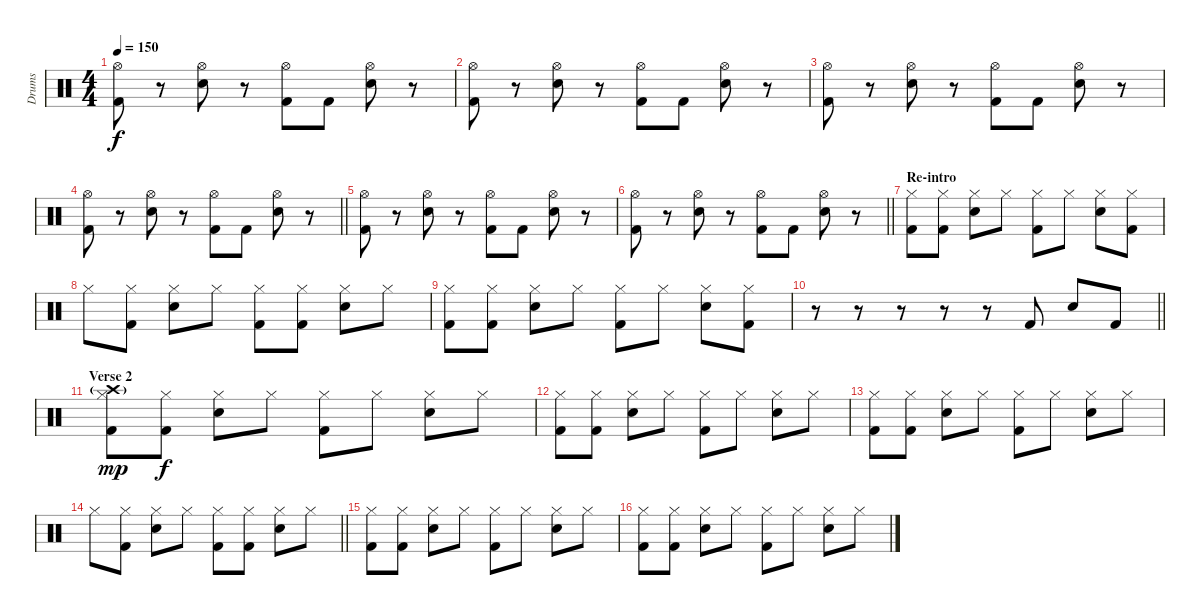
\track ("Drums" "Drums") {instrument percussion}
\staff {score}
\articulation defaults
\ts (4 4)
\tempo 150
\clef neutral
\ks c
("Hi-Hat (open)" "Kick (hit) 2").8{dy f} r.8 ("Hi-Hat (open)" "Snare (hit) 2").8 r.8 ("Hi-Hat (open)" "Kick (hit) 2").8 "Kick (hit) 2".8 ("Hi-Hat (open)" "Snare (hit) 2").8 r.8 |
("Hi-Hat (open)" "Kick (hit) 2").8 r.8 ("Hi-Hat (open)" "Snare (hit) 2").8 r.8 ("Hi-Hat (open)" "Kick (hit) 2").8 "Kick (hit) 2".8 ("Hi-Hat (open)" "Snare (hit) 2").8 r.8 |
("Hi-Hat (open)" "Kick (hit) 2").8 r.8 ("Hi-Hat (open)" "Snare (hit) 2").8 r.8 ("Hi-Hat (open)" "Kick (hit) 2").8 "Kick (hit) 2".8 ("Hi-Hat (open)" "Snare (hit) 2").8 r.8 |
\barLineRight lightlight
("Hi-Hat (open)" "Kick (hit) 2").8 r.8 ("Hi-Hat (open)" "Snare (hit) 2").8 r.8 ("Hi-Hat (open)" "Kick (hit) 2").8 "Kick (hit) 2".8 ("Hi-Hat (open)" "Snare (hit) 2").8 r.8 |
("Hi-Hat (open)" "Kick (hit) 2").8 r.8 ("Hi-Hat (open)" "Snare (hit) 2").8 r.8 ("Hi-Hat (open)" "Kick (hit) 2").8 "Kick (hit) 2".8 ("Hi-Hat (open)" "Snare (hit) 2").8 r.8 |
\barLineRight lightlight
("Hi-Hat (open)" "Kick (hit) 2").8 r.8 ("Hi-Hat (open)" "Snare (hit) 2").8 r.8 ("Hi-Hat (open)" "Kick (hit) 2").8 "Kick (hit) 2".8 ("Hi-Hat (open)" "Snare (hit) 2").8 r.8 |
\section ("" "Re-intro")
("Hi-Hat (closed)" "Kick (hit) 2").8 ("Hi-Hat (closed)" "Kick (hit) 2").8 ("Hi-Hat (closed)" "Snare (hit) 2").8 "Hi-Hat (closed)".8 ("Hi-Hat (closed)" "Kick (hit) 2").8 "Hi-Hat (closed)".8 ("Hi-Hat (closed)" "Snare (hit) 2").8 ("Hi-Hat (closed)" "Kick (hit) 2").8 |
"Hi-Hat (closed)".8 ("Hi-Hat (closed)" "Kick (hit) 2").8 ("Hi-Hat (closed)" "Snare (hit) 2").8 "Hi-Hat (closed)".8 ("Hi-Hat (closed)" "Kick (hit) 2").8 ("Hi-Hat (closed)" "Kick (hit) 2").8 ("Hi-Hat (closed)" "Snare (hit) 2").8 "Hi-Hat (closed)".8 |
("Hi-Hat (closed)" "Kick (hit) 2").8 ("Hi-Hat (closed)" "Kick (hit) 2").8 ("Hi-Hat (closed)" "Snare (hit) 2").8 "Hi-Hat (closed)".8 ("Hi-Hat (closed)" "Kick (hit) 2").8 "Hi-Hat (closed)".8 ("Hi-Hat (closed)" "Snare (hit) 2").8 ("Hi-Hat (closed)" "Kick (hit) 2").8 |
\barLineRight lightlight
r.8 r.8 r.8 r.8 r.8 "Kick (hit) 2".8 "Snare (hit) 2".8 "Kick (hit) 2".8 |
\section ("" "Verse 2")
("Hi-Hat (closed)" "Crash high (hit)"{g} "Kick (hit) 2").8{dy mp} ("Hi-Hat (closed)" "Kick (hit) 2").8{dy f} ("Hi-Hat (closed)" "Snare (hit) 2").8 "Hi-Hat (closed)".8 ("Hi-Hat (closed)" "Kick (hit) 2").8 "Hi-Hat (closed)".8 ("Hi-Hat (closed)" "Snare (hit) 2").8 "Hi-Hat (closed)".8 |
("Hi-Hat (closed)" "Kick (hit) 2").8 ("Hi-Hat (closed)" "Kick (hit) 2").8 ("Hi-Hat (closed)" "Snare (hit) 2").8 "Hi-Hat (closed)".8 ("Hi-Hat (closed)" "Kick (hit) 2").8 "Hi-Hat (closed)".8 ("Hi-Hat (closed)" "Snare (hit) 2").8 "Hi-Hat (closed)".8 |
("Hi-Hat (closed)" "Kick (hit) 2").8 ("Hi-Hat (closed)" "Kick (hit) 2").8 ("Hi-Hat (closed)" "Snare (hit) 2").8 "Hi-Hat (closed)".8 ("Hi-Hat (closed)" "Kick (hit) 2").8 "Hi-Hat (closed)".8 ("Hi-Hat (closed)" "Snare (hit) 2").8 "Hi-Hat (closed)".8 |
\barLineRight lightlight "Hi-Hat (closed)".8
("Hi-Hat (closed)" "Kick (hit) 2").8 ("Hi-Hat (closed)" "Snare (hit) 2").8 "Hi-Hat (closed)".8 ("Hi-Hat (closed)" "Kick (hit) 2").8 ("Hi-Hat (closed)" "Kick (hit) 2").8 ("Hi-Hat (closed)" "Snare (hit) 2").8 "Hi-Hat (closed)".8 |
("Hi-Hat (closed)" "Kick (hit) 2").8 ("Hi-Hat (closed)" "Kick (hit) 2").8 ("Hi-Hat (closed)" "Snare (hit) 2").8 "Hi-Hat (closed)".8 ("Hi-Hat (closed)" "Kick (hit) 2").8 "Hi-Hat (closed)".8 ("Hi-Hat (closed)" "Snare (hit) 2").8 "Hi-Hat (closed)".8 |
("Hi-Hat (closed)" "Kick (hit) 2").8 ("Hi-Hat (closed)" "Kick (hit) 2").8 ("Hi-Hat (closed)" "Snare (hit) 2").8 "Hi-Hat (closed)".8 ("Hi-Hat (closed)" "Kick (hit) 2").8 "Hi-Hat (closed)".8 ("Hi-Hat (closed)" "Snare (hit) 2").8 "Hi-Hat (closed)".8
